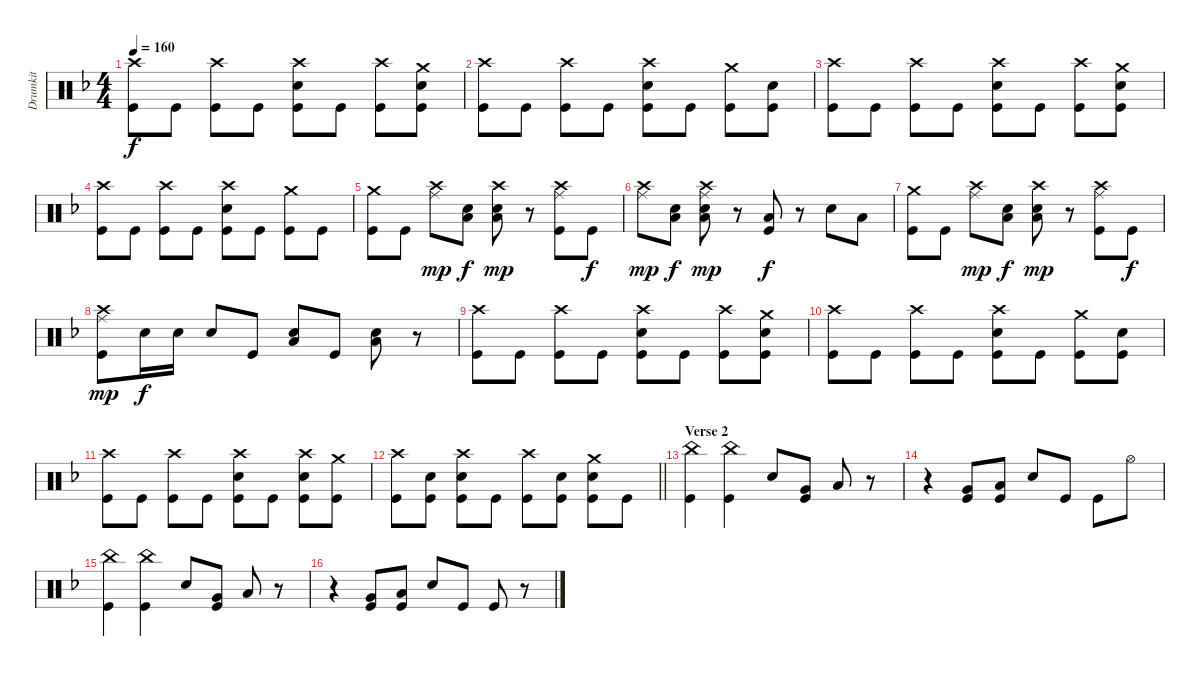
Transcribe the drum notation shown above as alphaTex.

\track ("Drumkit" "Drumkit") {instrument percussion}
\staff {score}
\articulation defaults
\ts (4 4)
\tempo 160
\clef neutral
\ks dminor
("Crash high (hit)" "Kick (hit)").8{dy f} "Kick (hit)".8 ("Crash high (hit)" "Kick (hit)").8 "Kick (hit)".8 ("Crash high (hit)" "Snare (hit) 2" "Kick (hit)").8 "Kick (hit)".8 ("Crash high (hit)" "Kick (hit)").8 ("Crash medium (hit)" "Snare (hit) 2" "Kick (hit)").8 |
("Crash high (hit)" "Kick (hit)").8 "Kick (hit)".8 ("Crash high (hit)" "Kick (hit)").8 "Kick (hit)".8 ("Crash high (hit)" "Snare (hit) 2" "Kick (hit)").8 "Kick (hit)".8 ("Crash medium (hit)" "Kick (hit)").8 ("Snare (hit) 2" "Kick (hit)").8 |
("Crash high (hit)" "Kick (hit)").8 "Kick (hit)".8 ("Crash high (hit)" "Kick (hit)").8 "Kick (hit)".8 ("Crash high (hit)" "Snare (hit) 2" "Kick (hit)").8 "Kick (hit)".8 ("Crash high (hit)" "Kick (hit)").8 ("Crash medium (hit)" "Snare (hit) 2" "Kick (hit)").8 |
("Crash high (hit)" "Kick (hit)").8 "Kick (hit)".8 ("Crash high (hit)" "Kick (hit)").8 "Kick (hit)".8 ("Crash high (hit)" "Snare (hit) 2" "Kick (hit)").8 "Kick (hit)".8 ("Crash medium (hit)" "Kick (hit)").8 "Kick (hit)".8 |
("Crash medium (hit)" "Kick (hit)").8 "Kick (hit)".8 ("Crash high (hit)" "Ride (middle)").8{dy mp} ("Snare (hit) 2" "Low Floor Tom (hit)").8{dy f} ("Crash high (hit)" "Snare (hit) 2" "Low Floor Tom (hit)").8{dy mp} r.8 ("Crash high (hit)" "Ride (middle)" "Kick (hit)").8 "Kick (hit)".8{dy f} |
("Crash high (hit)" "Ride (middle)").8{dy mp} ("Snare (hit) 2" "Low Floor Tom (hit)").8{dy f} ("Crash high (hit)" "Ride (middle)" "Snare (hit) 2" "Low Floor Tom (hit)").8{dy mp} r.8 ("Low Floor Tom (hit)" "Kick (hit)").8{dy f} r.8 "Snare (hit) 2".8 "Low Floor Tom (hit)".8 |
("Crash medium (hit)" "Kick (hit)").8 "Kick (hit)".8 ("Crash high (hit)" "Ride (middle)").8{dy mp} ("Snare (hit) 2" "Low Floor Tom (hit)").8{dy f} ("Crash high (hit)" "Snare (hit) 2" "Low Floor Tom (hit)").8{dy mp} r.8 ("Crash high (hit)" "Ride (middle)" "Kick (hit)").8 "Kick (hit)".8{dy f} |
("Crash high (hit)" "Ride (middle)" "Kick (hit)").8{dy mp} "Snare (hit) 2".16{dy f} "Snare (hit) 2".16 "Snare (hit) 2".8 "Kick (hit)".8 ("Snare (hit) 2" "Low Floor Tom (hit)").8 "Kick (hit)".8 ("Snare (hit) 2" "Low Floor Tom (hit)").8 r.8 |
("Crash high (hit)" "Kick (hit)").8 "Kick (hit)".8 ("Crash high (hit)" "Kick (hit)").8 "Kick (hit)".8 ("Crash high (hit)" "Snare (hit) 2" "Kick (hit)").8 "Kick (hit)".8 ("Crash high (hit)" "Kick (hit)").8 ("Crash medium (hit)" "Snare (hit) 2" "Kick (hit)").8 |
("Crash high (hit)" "Kick (hit)").8 "Kick (hit)".8 ("Crash high (hit)" "Kick (hit)").8 "Kick (hit)".8 ("Crash high (hit)" "Snare (hit) 2" "Kick (hit)").8 "Kick (hit)".8 ("Crash medium (hit)" "Kick (hit)").8 ("Snare (hit) 2" "Kick (hit)").8 |
("Crash high (hit)" "Kick (hit)").8 "Kick (hit)".8 ("Crash high (hit)" "Kick (hit)").8 "Kick (hit)".8 ("Crash high (hit)" "Snare (hit) 2" "Kick (hit)").8 "Kick (hit)".8 ("Crash high (hit)" "Snare (hit) 2" "Kick (hit)").8 ("Crash medium (hit)" "Kick (hit)").8 |
\barLineRight lightlight
("Crash high (hit)" "Kick (hit)").8 ("Snare (hit) 2" "Kick (hit)").8 ("Crash high (hit)" "Snare (hit) 2" "Kick (hit)").8 "Kick (hit)".8 ("Crash high (hit)" "Kick (hit)").8 ("Snare (hit) 2" "Kick (hit)").8 ("Crash medium (hit)" "Snare (hit) 2" "Kick (hit)").8 "Kick (hit)".8 |
\section ("" "Verse 2")
("China (hit)" "Kick (hit)").4 ("China (hit)" "Kick (hit)").4 "Snare (hit) 2".8 ("Very Low Tom (hit)" "Kick (hit)").8 "Low Tom (hit)".8 r.8 |
r.4 ("Very Low Tom (hit)" "Kick (hit)").8 ("Low Floor Tom (hit)" "Kick (hit)").8 "Snare (hit) 2".8 "Kick (hit)".8 "Kick (hit)".8 "Hi-Hat (open)".8 |
("China (hit)" "Kick (hit)").4 ("China (hit)" "Kick (hit)").4 "Snare (hit) 2".8 ("Very Low Tom (hit)" "Kick (hit)").8 "Low Tom (hit)".8 r.8 |
r.4 ("Very Low Tom (hit)" "Kick (hit)").8 ("Low Floor Tom (hit)" "Kick (hit)").8 "Snare (hit) 2".8 "Kick (hit)".8 "Kick (hit)".8 r.8
